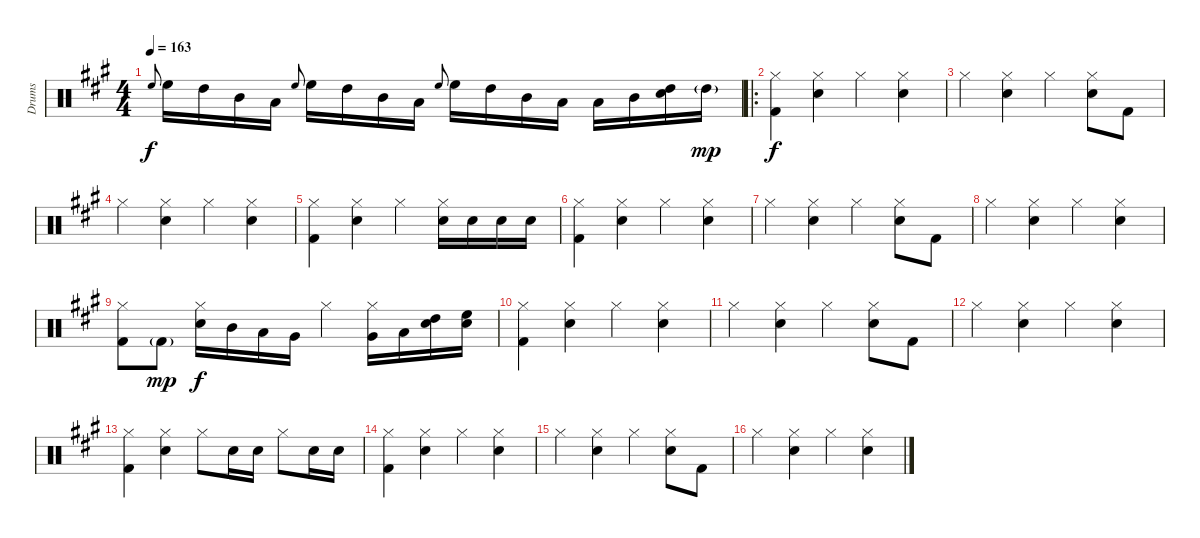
\track ("Drums" "Drums") {instrument percussion}
\staff {score}
\articulation defaults
\ts (4 4)
\tempo 163
\clef neutral
\ks a "High Floor Tom (hit)".8{gr onbeat dy f} "High Floor Tom (hit)".16 "High Tom (hit)".16 "Mid Tom (hit)".16 "Low Tom (hit)".16 "High Floor Tom (hit)".8{gr onbeat} "High Floor Tom (hit)".16 "High Tom (hit)".16 "Mid Tom (hit)".16 "Low Tom (hit)".16 "High Floor Tom (hit)".8{gr onbeat} "High Floor Tom (hit)".16 "High Tom (hit)".16 "Mid Tom (hit)".16 "Low Tom (hit)".16 "Low Tom (hit)".16 "Mid Tom (hit)".16
("Snare (hit) 2" "High Tom (hit)").16 "High Tom (hit)"{g}.16{dy mp} |
\ro
("Hi-Hat (closed)" "Kick (hit) 2").4{dy f} ("Hi-Hat (closed)" "Snare (hit) 2").4 "Hi-Hat (closed)".4 ("Hi-Hat (closed)" "Snare (hit) 2").4 |
"Hi-Hat (closed)".4 ("Hi-Hat (closed)" "Snare (hit) 2").4 "Hi-Hat (closed)".4 ("Hi-Hat (closed)" "Snare (hit) 2").8 "Kick (hit) 2".8 |
"Hi-Hat (closed)".4 ("Hi-Hat (closed)" "Snare (hit) 2").4 "Hi-Hat (closed)".4 ("Hi-Hat (closed)" "Snare (hit) 2").4 |
("Hi-Hat (closed)" "Kick (hit) 2").4 ("Hi-Hat (closed)" "Snare (hit) 2").4 "Hi-Hat (closed)".4 ("Hi-Hat (closed)" "Snare (hit) 2").16 "Snare (hit) 2".16 "Snare (hit) 2".16 "Snare (hit) 2".16 |
("Hi-Hat (closed)" "Kick (hit) 2").4 ("Hi-Hat (closed)" "Snare (hit) 2").4 "Hi-Hat (closed)".4 ("Hi-Hat (closed)" "Snare (hit) 2").4 |
"Hi-Hat (closed)".4 ("Hi-Hat (closed)" "Snare (hit) 2").4 "Hi-Hat (closed)".4 ("Hi-Hat (closed)" "Snare (hit) 2").8 "Kick (hit) 2".8 |
"Hi-Hat (closed)".4 ("Hi-Hat (closed)" "Snare (hit) 2").4 "Hi-Hat (closed)".4 ("Hi-Hat (closed)" "Snare (hit) 2").4 |
("Hi-Hat (closed)" "Kick (hit) 2").8 "Kick (hit) 2"{g}.8{dy mp} ("Hi-Hat (closed)" "Snare (hit) 2").16{dy f} "Mid Tom (hit)".16 "Low Tom (hit)".16 "Very Low Tom (hit)".16 "Hi-Hat (closed)".4 ("Hi-Hat (closed)" "Very Low Tom (hit)").16 "Low Tom (hit)".16 ("Snare (hit) 2" "High Tom (hit)").16 ("High Floor Tom (hit)" "Snare (hit) 2").16 |
("Hi-Hat (closed)" "Kick (hit) 2").4 ("Hi-Hat (closed)" "Snare (hit) 2").4 "Hi-Hat (closed)".4 ("Hi-Hat (closed)" "Snare (hit) 2").4 |
"Hi-Hat (closed)".4 ("Hi-Hat (closed)" "Snare (hit) 2").4 "Hi-Hat (closed)".4 ("Hi-Hat (closed)" "Snare (hit) 2").8 "Kick (hit) 2".8 |
"Hi-Hat (closed)".4 ("Hi-Hat (closed)" "Snare (hit) 2").4 "Hi-Hat (closed)".4 ("Hi-Hat (closed)" "Snare (hit) 2").4 |
("Hi-Hat (closed)" "Kick (hit) 2").4 ("Hi-Hat (closed)" "Snare (hit) 2").4 "Hi-Hat (closed)".8 "Snare (hit) 2".16 "Snare (hit) 2".16 "Hi-Hat (closed)".8 "Snare (hit) 2".16 "Snare (hit) 2".16 |
("Hi-Hat (closed)" "Kick (hit) 2").4 ("Hi-Hat (closed)" "Snare (hit) 2").4 "Hi-Hat (closed)".4 ("Hi-Hat (closed)" "Snare (hit) 2").4 |
"Hi-Hat (closed)".4 ("Hi-Hat (closed)" "Snare (hit) 2").4 "Hi-Hat (closed)".4 ("Hi-Hat (closed)" "Snare (hit) 2").8 "Kick (hit) 2".8 |
"Hi-Hat (closed)".4 ("Hi-Hat (closed)" "Snare (hit) 2").4 "Hi-Hat (closed)".4 ("Hi-Hat (closed)" "Snare (hit) 2").4
